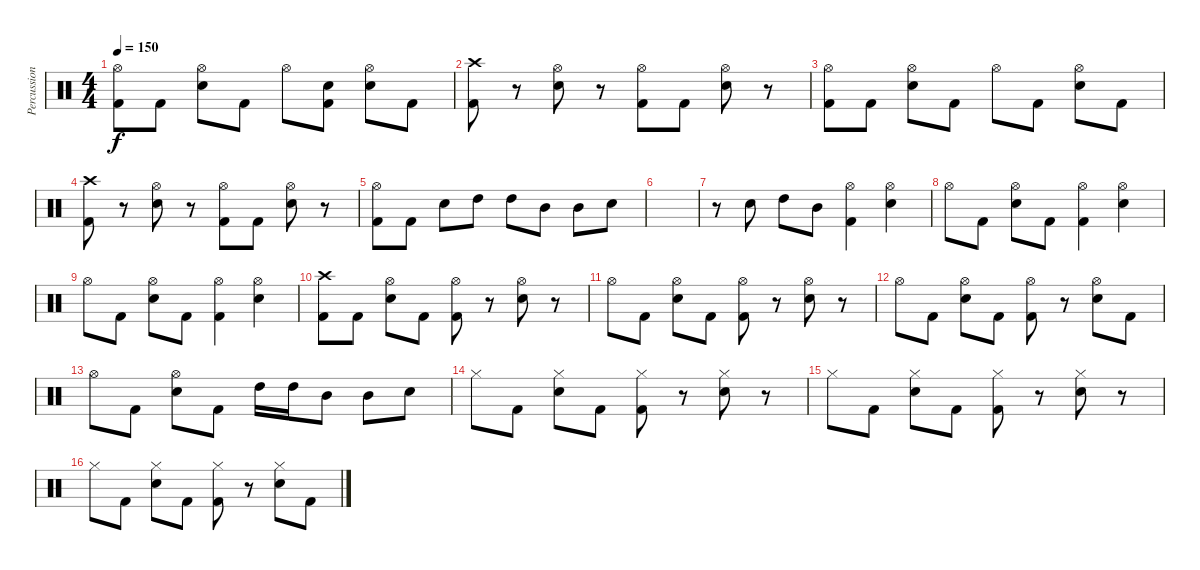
\track ("Percussion" "Percussion") {instrument percussion}
\staff {score}
\articulation defaults
\ts (4 4)
\tempo 150
\clef neutral
\ks c
("Hi-Hat (open)" "Kick (hit) 2").8{dy f} "Kick (hit) 2".8 ("Hi-Hat (open)" "Electric Snare (hit)").8 "Kick (hit) 2".8 "Hi-Hat (open)".8 ("Electric Snare (hit)" "Kick (hit) 2").8 ("Hi-Hat (open)" "Electric Snare (hit)").8 "Kick (hit) 2".8 |
("Crash high (hit)" "Kick (hit) 2").8 r.8 ("Hi-Hat (open)" "Electric Snare (hit)").8 r.8 ("Hi-Hat (open)" "Kick (hit) 2").8 "Kick (hit) 2".8 ("Hi-Hat (open)" "Electric Snare (hit)").8 r.8 |
("Hi-Hat (open)" "Kick (hit) 2").8 "Kick (hit) 2".8 ("Hi-Hat (open)" "Electric Snare (hit)").8 "Kick (hit) 2".8 "Hi-Hat (open)".8 "Kick (hit) 2".8 ("Hi-Hat (open)" "Electric Snare (hit)").8 "Kick (hit) 2".8 |
("Crash high (hit)" "Kick (hit) 2").8 r.8 ("Hi-Hat (open)" "Electric Snare (hit)").8 r.8 ("Hi-Hat (open)" "Kick (hit) 2").8 "Kick (hit) 2".8 ("Hi-Hat (open)" "Electric Snare (hit)").8 r.8 |
("Hi-Hat (open)" "Kick (hit) 2").8 "Kick (hit) 2".8 "Electric Snare (hit)".8 "High Tom (hit)".8 "High Tom (hit)".8 "Mid Tom (hit)".8 "Mid Tom (hit)".8 "Electric Snare (hit)".8 |
|
r.8 "Electric Snare (hit)".8 "High Tom (hit)".8 "Mid Tom (hit)".8 ("Hi-Hat (open)" "Kick (hit) 2").4 ("Hi-Hat (open)" "Electric Snare (hit)").4 |
"Hi-Hat (open)".8 "Kick (hit) 2".8 ("Hi-Hat (open)" "Electric Snare (hit)").8 "Kick (hit) 2".8 ("Hi-Hat (open)" "Kick (hit) 2").4 ("Hi-Hat (open)" "Electric Snare (hit)").4 |
"Hi-Hat (open)".8 "Kick (hit) 2".8 ("Hi-Hat (open)" "Electric Snare (hit)").8 "Kick (hit) 2".8 ("Hi-Hat (open)" "Kick (hit) 2").4 ("Hi-Hat (open)" "Electric Snare (hit)").4 |
("Crash high (hit)" "Kick (hit) 2").8 "Kick (hit) 2".8 ("Hi-Hat (open)" "Electric Snare (hit)").8 "Kick (hit) 2".8 ("Hi-Hat (open)" "Kick (hit) 2").8 r.8 ("Hi-Hat (open)" "Electric Snare (hit)").8 r.8 |
"Hi-Hat (open)".8 "Kick (hit) 2".8 ("Hi-Hat (open)" "Electric Snare (hit)").8 "Kick (hit) 2".8 ("Hi-Hat (open)" "Kick (hit) 2").8 r.8 ("Hi-Hat (open)" "Electric Snare (hit)").8 r.8 |
"Hi-Hat (open)".8 "Kick (hit) 2".8 ("Hi-Hat (open)" "Electric Snare (hit)").8 "Kick (hit) 2".8 ("Hi-Hat (open)" "Kick (hit) 2").8 r.8 ("Hi-Hat (open)" "Electric Snare (hit)").8 "Kick (hit) 2".8 |
"Hi-Hat (open)".8 "Kick (hit) 2".8 ("Hi-Hat (open)" "Electric Snare (hit)").8 "Kick (hit) 2".8 "High Tom (hit)".16 "High Tom (hit)".16 "Mid Tom (hit)".8 "Mid Tom (hit)".8 "Electric Snare (hit)".8 |
"Hi-Hat (closed)".8 "Kick (hit) 2".8 ("Hi-Hat (closed)" "Electric Snare (hit)").8 "Kick (hit) 2".8 ("Hi-Hat (closed)" "Kick (hit) 2").8 r.8 ("Hi-Hat (closed)" "Electric Snare (hit)").8 r.8 |
"Hi-Hat (closed)".8 "Kick (hit) 2".8 ("Hi-Hat (closed)" "Electric Snare (hit)").8 "Kick (hit) 2".8 ("Hi-Hat (closed)" "Kick (hit) 2").8 r.8 ("Hi-Hat (closed)" "Electric Snare (hit)").8 r.8 |
"Hi-Hat (closed)".8 "Kick (hit) 2".8 ("Hi-Hat (closed)" "Electric Snare (hit)").8 "Kick (hit) 2".8 ("Hi-Hat (closed)" "Kick (hit) 2").8 r.8 ("Hi-Hat (closed)" "Electric Snare (hit)").8 "Kick (hit) 2".8
